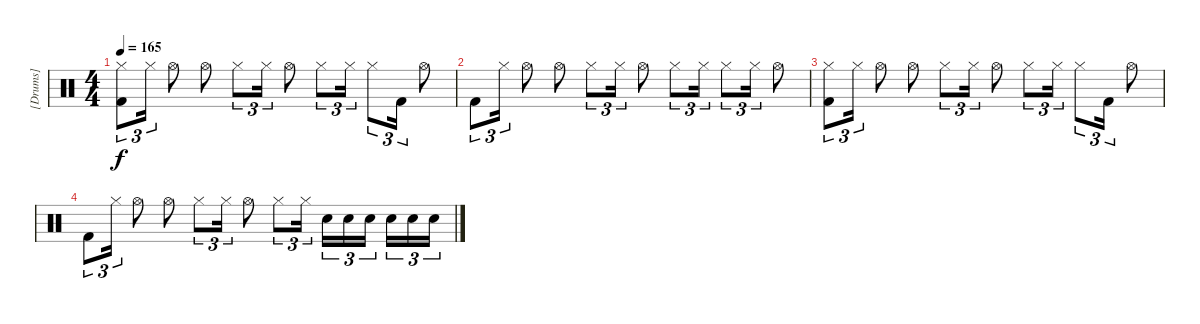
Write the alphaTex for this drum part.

\track ("[Drums]" "[Drums]") {instrument percussion}
\staff {score}
\articulation defaults
\ts (4 4)
\tempo 165
\clef neutral
\ks c
("Hi-Hat (closed)" "Kick (hit) 2").8{tu (3 2) dy f} "Hi-Hat (closed)".16{tu (3 2)} "Hi-Hat (open)".8 "Hi-Hat (open)".8 "Hi-Hat (closed)".8{tu (3 2)} "Hi-Hat (closed)".16{tu (3 2)} "Hi-Hat (open)".8 "Hi-Hat (closed)".8{tu (3 2)} "Hi-Hat (closed)".16{tu (3 2)} "Hi-Hat (closed)".8{tu (3 2)} "Kick (hit) 2".16{tu (3 2)} "Hi-Hat (open)".8 |
"Kick (hit) 2".8{tu (3 2)} "Hi-Hat (closed)".16{tu (3 2)} "Hi-Hat (open)".8 "Hi-Hat (open)".8 "Hi-Hat (closed)".8{tu (3 2)} "Hi-Hat (closed)".16{tu (3 2)} "Hi-Hat (open)".8 "Hi-Hat (closed)".8{tu (3 2)} "Hi-Hat (closed)".16{tu (3 2)} "Hi-Hat (closed)".8{tu (3 2)} "Hi-Hat (closed)".16{tu (3 2)} "Hi-Hat (open)".8 |
("Hi-Hat (closed)" "Kick (hit) 2").8{tu (3 2)} "Hi-Hat (closed)".16{tu (3 2)} "Hi-Hat (open)".8 "Hi-Hat (open)".8 "Hi-Hat (closed)".8{tu (3 2)} "Hi-Hat (closed)".16{tu (3 2)} "Hi-Hat (open)".8 "Hi-Hat (closed)".8{tu (3 2)} "Hi-Hat (closed)".16{tu (3 2)} "Hi-Hat (closed)".8{tu (3 2)} "Kick (hit) 2".16{tu (3 2)} "Hi-Hat (open)".8 |
"Kick (hit) 2".8{tu (3 2)} "Hi-Hat (closed)".16{tu (3 2)} "Hi-Hat (open)".8 "Hi-Hat (open)".8 "Hi-Hat (closed)".8{tu (3 2)} "Hi-Hat (closed)".16{tu (3 2)} "Hi-Hat (open)".8 "Hi-Hat (closed)".8{tu (3 2)} "Hi-Hat (closed)".16{tu (3 2)} "Electric Snare (hit)".16{tu (3 2)} "Electric Snare (hit)".16{tu (3 2)} "Electric Snare (hit)".16{tu (3 2) beam splitsecondary} "Electric Snare (hit)".16{tu (3 2)} "Electric Snare (hit)".16{tu (3 2)} "Electric Snare (hit)".16{tu (3 2)}
